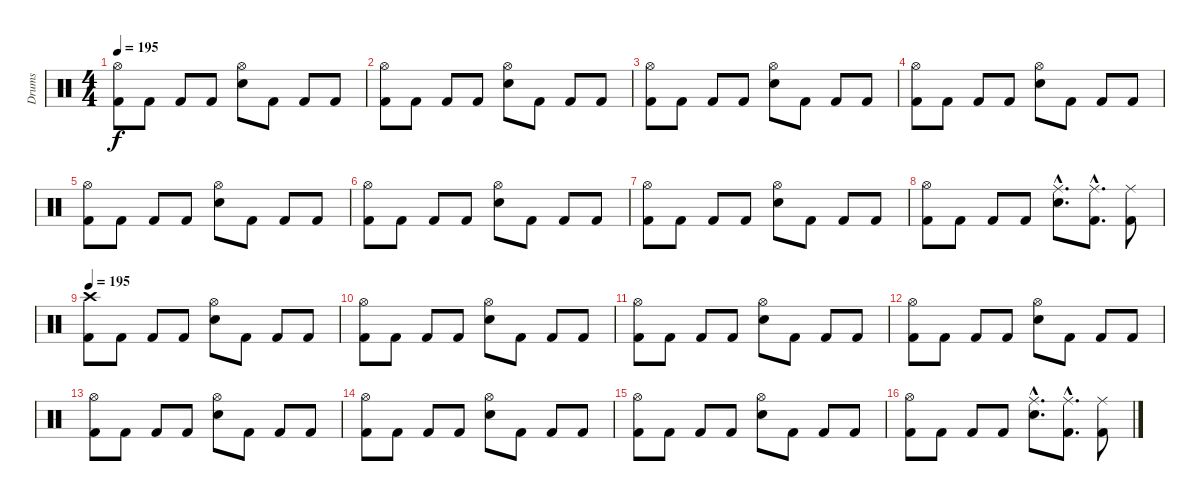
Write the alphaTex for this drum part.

\track ("Drums" "Drums") {instrument percussion}
\staff {score}
\articulation defaults
\ts (4 4)
\tempo 195
\clef neutral
\ks c
("Hi-Hat (open)" "Kick (hit) 2").8{dy f} "Kick (hit) 2".8 "Kick (hit) 2".8 "Kick (hit) 2".8 ("Hi-Hat (open)" "Snare (hit) 2").8 "Kick (hit) 2".8 "Kick (hit) 2".8 "Kick (hit) 2".8 |
("Hi-Hat (open)" "Kick (hit) 2").8 "Kick (hit) 2".8 "Kick (hit) 2".8 "Kick (hit) 2".8 ("Hi-Hat (open)" "Snare (hit) 2").8 "Kick (hit) 2".8 "Kick (hit) 2".8 "Kick (hit) 2".8 |
("Hi-Hat (open)" "Kick (hit) 2").8 "Kick (hit) 2".8 "Kick (hit) 2".8 "Kick (hit) 2".8 ("Hi-Hat (open)" "Snare (hit) 2").8 "Kick (hit) 2".8 "Kick (hit) 2".8 "Kick (hit) 2".8 |
("Hi-Hat (open)" "Kick (hit) 2").8 "Kick (hit) 2".8 "Kick (hit) 2".8 "Kick (hit) 2".8 ("Hi-Hat (open)" "Snare (hit) 2").8 "Kick (hit) 2".8 "Kick (hit) 2".8 "Kick (hit) 2".8 |
("Hi-Hat (open)" "Kick (hit) 2").8 "Kick (hit) 2".8 "Kick (hit) 2".8 "Kick (hit) 2".8 ("Hi-Hat (open)" "Snare (hit) 2").8 "Kick (hit) 2".8 "Kick (hit) 2".8 "Kick (hit) 2".8 |
("Hi-Hat (open)" "Kick (hit) 2").8 "Kick (hit) 2".8 "Kick (hit) 2".8 "Kick (hit) 2".8 ("Hi-Hat (open)" "Snare (hit) 2").8 "Kick (hit) 2".8 "Kick (hit) 2".8 "Kick (hit) 2".8 |
("Hi-Hat (open)" "Kick (hit) 2").8 "Kick (hit) 2".8 "Kick (hit) 2".8 "Kick (hit) 2".8 ("Hi-Hat (open)" "Snare (hit) 2").8 "Kick (hit) 2".8 "Kick (hit) 2".8 "Kick (hit) 2".8 |
("Hi-Hat (open)" "Kick (hit) 2").8 "Kick (hit) 2".8 "Kick (hit) 2".8 "Kick (hit) 2".8 ("Ride (middle)"{hac} "Snare (hit) 2"{hac}).8{d} ("Ride (middle)"{hac} "Kick (hit) 2"{hac}).8{d} ("Ride (middle)" "Kick (hit) 2").8 |
\tempo 195
("Crash high (hit)" "Kick (hit) 2").8 "Kick (hit) 2".8 "Kick (hit) 2".8 "Kick (hit) 2".8 ("Hi-Hat (open)" "Snare (hit) 2").8 "Kick (hit) 2".8 "Kick (hit) 2".8 "Kick (hit) 2".8 |
("Hi-Hat (open)" "Kick (hit) 2").8 "Kick (hit) 2".8 "Kick (hit) 2".8 "Kick (hit) 2".8 ("Hi-Hat (open)" "Snare (hit) 2").8 "Kick (hit) 2".8 "Kick (hit) 2".8 "Kick (hit) 2".8 |
("Hi-Hat (open)" "Kick (hit) 2").8 "Kick (hit) 2".8 "Kick (hit) 2".8 "Kick (hit) 2".8 ("Hi-Hat (open)" "Snare (hit) 2").8 "Kick (hit) 2".8 "Kick (hit) 2".8 "Kick (hit) 2".8 |
("Hi-Hat (open)" "Kick (hit) 2").8 "Kick (hit) 2".8 "Kick (hit) 2".8 "Kick (hit) 2".8 ("Hi-Hat (open)" "Snare (hit) 2").8 "Kick (hit) 2".8 "Kick (hit) 2".8 "Kick (hit) 2".8 |
("Hi-Hat (open)" "Kick (hit) 2").8 "Kick (hit) 2".8 "Kick (hit) 2".8 "Kick (hit) 2".8 ("Hi-Hat (open)" "Snare (hit) 2").8 "Kick (hit) 2".8 "Kick (hit) 2".8 "Kick (hit) 2".8 |
("Hi-Hat (open)" "Kick (hit) 2").8 "Kick (hit) 2".8 "Kick (hit) 2".8 "Kick (hit) 2".8 ("Hi-Hat (open)" "Snare (hit) 2").8 "Kick (hit) 2".8 "Kick (hit) 2".8 "Kick (hit) 2".8 |
("Hi-Hat (open)" "Kick (hit) 2").8 "Kick (hit) 2".8 "Kick (hit) 2".8 "Kick (hit) 2".8 ("Hi-Hat (open)" "Snare (hit) 2").8 "Kick (hit) 2".8 "Kick (hit) 2".8 "Kick (hit) 2".8 |
("Hi-Hat (open)" "Kick (hit) 2").8 "Kick (hit) 2".8 "Kick (hit) 2".8 "Kick (hit) 2".8 ("Ride (middle)"{hac} "Snare (hit) 2"{hac}).8{d} ("Ride (middle)"{hac} "Kick (hit) 2"{hac}).8{d} ("Ride (middle)" "Kick (hit) 2").8
